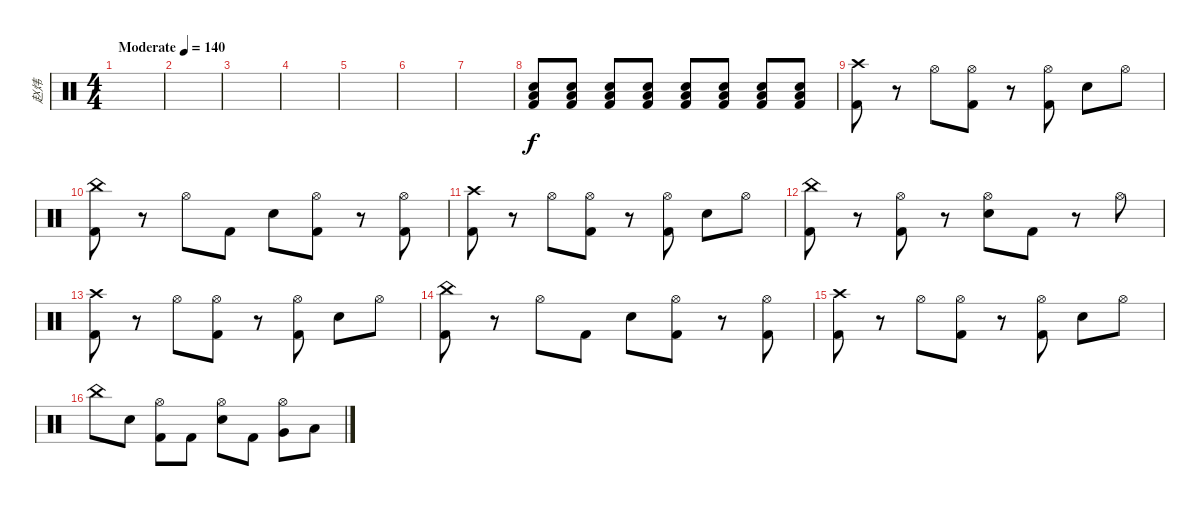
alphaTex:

\track ("赵炜" "赵炜") {instrument percussion}
\staff {score}
\articulation defaults
\ts (4 4)
\tempo (140 "Moderate")
\clef neutral
\ks c
|
|
|
|
|
|
|
("Low Floor Tom (hit)" "Snare (hit) 2" "Kick (hit) 2").8 ("Low Floor Tom (hit)" "Snare (hit) 2" "Kick (hit) 2").8 ("Low Floor Tom (hit)" "Snare (hit) 2" "Kick (hit) 2").8 ("Low Floor Tom (hit)" "Snare (hit) 2" "Kick (hit) 2").8 ("Low Floor Tom (hit)" "Snare (hit) 2" "Kick (hit) 2").8 ("Low Floor Tom (hit)" "Snare (hit) 2" "Kick (hit) 2").8 ("Low Floor Tom (hit)" "Snare (hit) 2" "Kick (hit) 2").8 ("Low Floor Tom (hit)" "Snare (hit) 2" "Kick (hit) 2").8 |
("Crash high (hit)" "Kick (hit) 2").8 r.8 "Hi-Hat (open)".8 ("Hi-Hat (open)" "Kick (hit) 2").8 r.8 ("Hi-Hat (open)" "Kick (hit) 2").8 "Snare (hit) 2".8 "Hi-Hat (open)".8 |
("China (hit)" "Kick (hit) 2").8 r.8 "Hi-Hat (open)".8 "Kick (hit) 2".8 "Snare (hit) 2".8 ("Hi-Hat (open)" "Kick (hit) 2").8 r.8 ("Hi-Hat (open)" "Kick (hit) 2").8 |
("Crash high (hit)" "Kick (hit) 2").8 r.8 "Hi-Hat (open)".8 ("Hi-Hat (open)" "Kick (hit) 2").8 r.8 ("Hi-Hat (open)" "Kick (hit) 2").8 "Snare (hit) 2".8 "Hi-Hat (open)".8 |
("China (hit)" "Kick (hit) 2").8 r.8 ("Hi-Hat (open)" "Kick (hit) 2").8 r.8 ("Hi-Hat (open)" "Snare (hit) 2").8 "Kick (hit) 2".8 r.8 "Hi-Hat (open)".8 |
("Crash high (hit)" "Kick (hit) 2").8 r.8 "Hi-Hat (open)".8 ("Hi-Hat (open)" "Kick (hit) 2").8 r.8 ("Hi-Hat (open)" "Kick (hit) 2").8 "Snare (hit) 2".8 "Hi-Hat (open)".8 |
("China (hit)" "Kick (hit) 2").8 r.8 "Hi-Hat (open)".8 "Kick (hit) 2".8 "Snare (hit) 2".8 ("Hi-Hat (open)" "Kick (hit) 2").8 r.8 ("Hi-Hat (open)" "Kick (hit) 2").8 |
("Crash high (hit)" "Kick (hit) 2").8 r.8 "Hi-Hat (open)".8 ("Hi-Hat (open)" "Kick (hit) 2").8 r.8 ("Hi-Hat (open)" "Kick (hit) 2").8 "Snare (hit) 2".8 "Hi-Hat (open)".8 |
"China (hit)".8 "Snare (hit) 2".8 ("Hi-Hat (open)" "Kick (hit) 2").8 "Kick (hit) 2".8 ("Hi-Hat (open)" "Snare (hit) 2").8 "Kick (hit) 2".8 ("Hi-Hat (open)" "Very Low Tom (hit)").8 "Low Floor Tom (hit)".8
